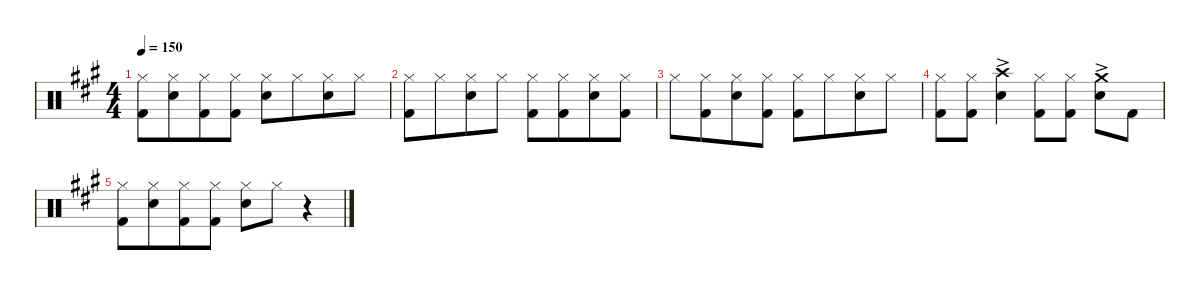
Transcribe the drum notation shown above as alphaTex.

\defaultSystemsLayout 4
\hideDynamics
\bracketExtendMode nobrackets
\singleTrackTrackNamePolicy hidden
\multiTrackTrackNamePolicy hidden
\firstSystemTrackNameMode fullname
\firstSystemTrackNameOrientation horizontal
\otherSystemsTrackNameOrientation horizontal
\track ("Drums" "drm.") {instrument percussion}
\staff {score}
\articulation defaults
\ts (4 4)
\tempo 150
\clef neutral
\ks a
("Hi-Hat (closed)"{acc forcenatural} "Kick (hit) 2"{acc forcenatural}).8{dy f beam Down} ("Hi-Hat (closed)"{acc forcenatural} "Snare (hit) 2"{acc forcenatural}).8{beam Down beam merge} ("Hi-Hat (closed)"{acc forcenatural} "Kick (hit) 2"{acc forcenatural}).8{beam Down} ("Hi-Hat (closed)"{acc forcenatural} "Kick (hit) 2"{acc forcenatural}).8{beam Down} ("Hi-Hat (closed)"{acc forcenatural} "Snare (hit) 2"{acc forcenatural}).8{beam Down} "Hi-Hat (closed)"{acc forcenatural}.8{beam Down beam merge} ("Hi-Hat (closed)"{acc forcenatural} "Snare (hit) 2"{acc forcenatural}).8{beam Down} "Hi-Hat (closed)"{acc forcenatural}.8{beam Down} |
("Hi-Hat (closed)"{acc forcenatural} "Kick (hit) 2"{acc forcenatural}).8{beam Down} "Hi-Hat (closed)"{acc forcenatural}.8{beam Down beam merge} ("Hi-Hat (closed)"{acc forcenatural} "Snare (hit) 2"{acc forcenatural}).8{beam Down} "Hi-Hat (closed)"{acc forcenatural}.8{beam Down} ("Hi-Hat (closed)"{acc forcenatural} "Kick (hit) 2"{acc forcenatural}).8{beam Down} ("Hi-Hat (closed)"{acc forcenatural} "Kick (hit) 2"{acc forcenatural}).8{beam Down beam merge} ("Hi-Hat (closed)"{acc forcenatural} "Snare (hit) 2"{acc forcenatural}).8{beam Down} ("Hi-Hat (closed)"{acc forcenatural} "Kick (hit) 2"{acc forcenatural}).8{beam Down} |
"Hi-Hat (closed)"{acc forcenatural}.8{beam Down} ("Hi-Hat (closed)"{acc forcenatural} "Kick (hit) 2"{acc forcenatural}).8{beam Down beam merge} ("Hi-Hat (closed)"{acc forcenatural} "Snare (hit) 2"{acc forcenatural}).8{beam Down} ("Hi-Hat (closed)"{acc forcenatural} "Kick (hit) 2"{acc forcenatural}).8{beam Down} ("Hi-Hat (closed)"{acc forcenatural} "Kick (hit) 2"{acc forcenatural}).8{beam Down} "Hi-Hat (closed)"{acc forcenatural}.8{beam Down beam merge} ("Hi-Hat (closed)"{acc forcenatural} "Snare (hit) 2"{acc forcenatural}).8{beam Down} "Hi-Hat (closed)"{acc forcenatural}.8{beam Down} |
("Hi-Hat (closed)"{acc forcenatural} "Kick (hit) 2"{acc forcenatural}).8{beam Down} ("Hi-Hat (closed)"{acc forcenatural} "Kick (hit) 2"{acc forcenatural}).8{beam Down} ("Crash high (hit)"{ac acc forcenatural} "Snare (hit) 2"{acc forcenatural}).4{beam Down} ("Hi-Hat (closed)"{acc forcenatural} "Kick (hit) 2"{acc forcenatural}).8{beam Down} ("Hi-Hat (closed)"{acc forcenatural} "Kick (hit) 2"{acc forcenatural}).8{beam Down} ("Crash medium (hit)"{ac acc forcenatural} "Snare (hit) 2"{acc forcenatural}).8{beam Down} "Kick (hit) 2"{acc forcenatural}.8{beam Down} |
("Hi-Hat (closed)"{acc forcenatural} "Kick (hit) 2"{acc forcenatural}).8{beam Down} ("Hi-Hat (closed)"{acc forcenatural} "Snare (hit) 2"{acc forcenatural}).8{beam Down beam merge} ("Hi-Hat (closed)"{acc forcenatural} "Kick (hit) 2"{acc forcenatural}).8{beam Down} ("Hi-Hat (closed)"{acc forcenatural} "Kick (hit) 2"{acc forcenatural}).8{beam Down} ("Hi-Hat (closed)"{acc forcenatural} "Snare (hit) 2"{acc forcenatural}).8{beam Down} "Hi-Hat (closed)"{acc forcenatural}.8{beam Down} r.4{beam Down}
